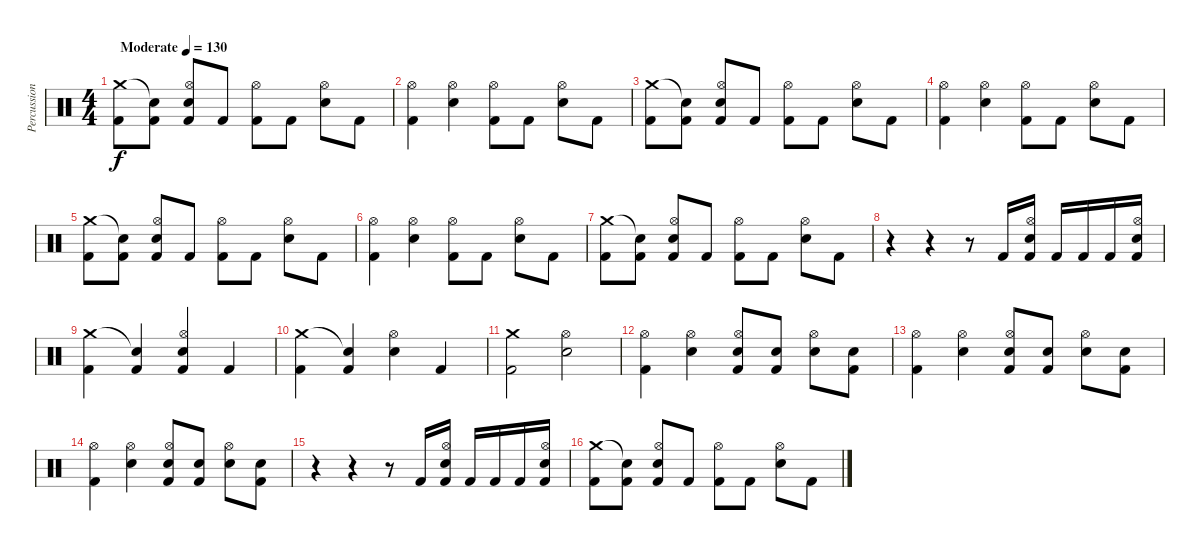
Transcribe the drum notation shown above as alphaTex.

\track ("Percussion" "Percussion") {instrument percussion}
\staff {score}
\articulation defaults
\ts (4 4)
\tempo (130 "Moderate")
\clef neutral
\ks c
("Crash medium (hit)" "Kick (hit) 2").8{dy f} ("Snare (hit)"{t} "Kick (hit) 2").8 ("Hi-Hat (open)" "Electric Snare (hit)" "Kick (hit) 2").8 "Kick (hit) 2".8 ("Hi-Hat (open)" "Kick (hit) 2").8 "Kick (hit) 2".8 ("Hi-Hat (open)" "Electric Snare (hit)").8 "Kick (hit) 2".8 |
("Hi-Hat (open)" "Kick (hit) 2").4 ("Hi-Hat (open)" "Electric Snare (hit)").4 ("Hi-Hat (open)" "Kick (hit) 2").8 "Kick (hit) 2".8 ("Hi-Hat (open)" "Electric Snare (hit)").8 "Kick (hit) 2".8 |
("Crash medium (hit)" "Kick (hit) 2").8 ("Snare (hit)"{t} "Kick (hit) 2").8 ("Hi-Hat (open)" "Electric Snare (hit)" "Kick (hit) 2").8 "Kick (hit) 2".8 ("Hi-Hat (open)" "Kick (hit) 2").8 "Kick (hit) 2".8 ("Hi-Hat (open)" "Electric Snare (hit)").8 "Kick (hit) 2".8 |
("Hi-Hat (open)" "Kick (hit) 2").4 ("Hi-Hat (open)" "Electric Snare (hit)").4 ("Hi-Hat (open)" "Kick (hit) 2").8 "Kick (hit) 2".8 ("Hi-Hat (open)" "Electric Snare (hit)").8 "Kick (hit) 2".8 |
("Crash medium (hit)" "Kick (hit) 2").8 ("Snare (hit)"{t} "Kick (hit) 2").8 ("Hi-Hat (open)" "Electric Snare (hit)" "Kick (hit) 2").8 "Kick (hit) 2".8 ("Hi-Hat (open)" "Kick (hit) 2").8 "Kick (hit) 2".8 ("Hi-Hat (open)" "Electric Snare (hit)").8 "Kick (hit) 2".8 |
("Hi-Hat (open)" "Kick (hit) 2").4 ("Hi-Hat (open)" "Electric Snare (hit)").4 ("Hi-Hat (open)" "Kick (hit) 2").8 "Kick (hit) 2".8 ("Hi-Hat (open)" "Electric Snare (hit)").8 "Kick (hit) 2".8 |
("Crash medium (hit)" "Kick (hit) 2").8 ("Snare (hit)"{t} "Kick (hit) 2").8 ("Hi-Hat (open)" "Electric Snare (hit)" "Kick (hit) 2").8 "Kick (hit) 2".8 ("Hi-Hat (open)" "Kick (hit) 2").8 "Kick (hit) 2".8 ("Hi-Hat (open)" "Electric Snare (hit)").8 "Kick (hit) 2".8 |
r.4 r.4 r.8 "Kick (hit) 2".16 ("Hi-Hat (open)" "Electric Snare (hit)" "Kick (hit) 2").16 "Kick (hit) 2".16 "Kick (hit) 2".16 "Kick (hit) 2".16 ("Hi-Hat (open)" "Electric Snare (hit)" "Kick (hit) 2").16 |
("Crash medium (hit)" "Kick (hit) 2").4 ("Snare (hit)"{t} "Kick (hit) 2").4 ("Hi-Hat (open)" "Electric Snare (hit)" "Kick (hit) 2").4 "Kick (hit) 2".4 |
("Crash medium (hit)" "Kick (hit) 2").4 ("Snare (hit)"{t} "Kick (hit) 2").4 ("Hi-Hat (open)" "Electric Snare (hit)").4 "Kick (hit) 2".4 |
("Crash medium (hit)" "Kick (hit) 2").2 ("Hi-Hat (open)" "Electric Snare (hit)").2 |
("Hi-Hat (open)" "Kick (hit) 2").4 ("Hi-Hat (open)" "Electric Snare (hit)").4 ("Hi-Hat (open)" "Electric Snare (hit)" "Kick (hit) 2").8 ("Electric Snare (hit)" "Kick (hit) 2").8 ("Hi-Hat (open)" "Electric Snare (hit)").8 ("Electric Snare (hit)" "Kick (hit) 2").8 |
("Hi-Hat (open)" "Kick (hit) 2").4 ("Hi-Hat (open)" "Electric Snare (hit)").4 ("Hi-Hat (open)" "Electric Snare (hit)" "Kick (hit) 2").8 ("Electric Snare (hit)" "Kick (hit) 2").8 ("Hi-Hat (open)" "Electric Snare (hit)").8 ("Electric Snare (hit)" "Kick (hit) 2").8 |
("Hi-Hat (open)" "Kick (hit) 2").4 ("Hi-Hat (open)" "Electric Snare (hit)").4 ("Hi-Hat (open)" "Electric Snare (hit)" "Kick (hit) 2").8 ("Electric Snare (hit)" "Kick (hit) 2").8 ("Hi-Hat (open)" "Electric Snare (hit)").8 ("Electric Snare (hit)" "Kick (hit) 2").8 |
r.4 r.4 r.8 "Kick (hit) 2".16 ("Hi-Hat (open)" "Electric Snare (hit)" "Kick (hit) 2").16 "Kick (hit) 2".16 "Kick (hit) 2".16 "Kick (hit) 2".16 ("Hi-Hat (open)" "Electric Snare (hit)" "Kick (hit) 2").16 |
("Crash medium (hit)" "Kick (hit) 2").8 ("Snare (hit)"{t} "Kick (hit) 2").8 ("Hi-Hat (open)" "Electric Snare (hit)" "Kick (hit) 2").8 "Kick (hit) 2".8 ("Hi-Hat (open)" "Kick (hit) 2").8 "Kick (hit) 2".8 ("Hi-Hat (open)" "Electric Snare (hit)").8 "Kick (hit) 2".8
